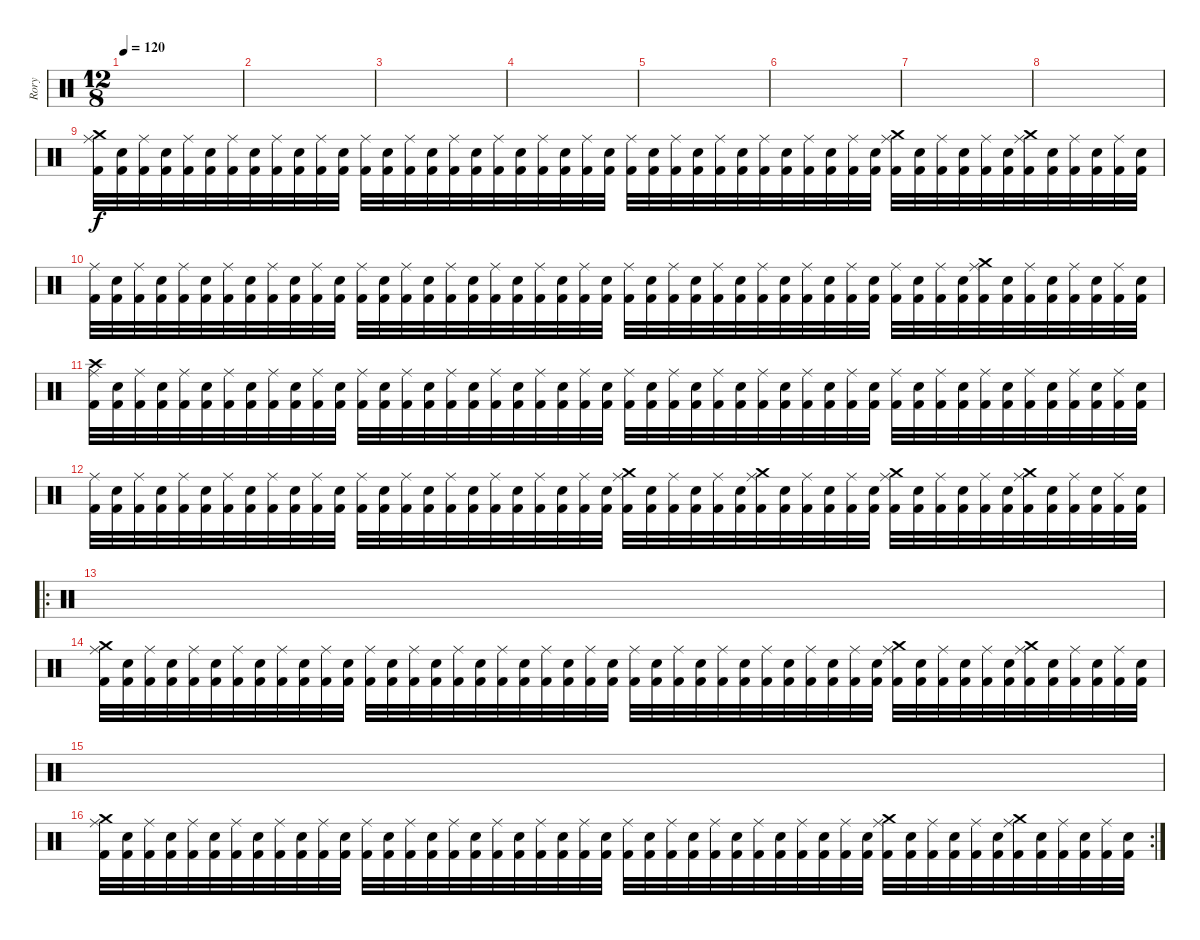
\track ("Rory" "Rory") {instrument percussion}
\staff {score}
\articulation defaults
\ts (12 8)
\tempo 120
\clef neutral
\ks c
|
|
|
|
|
|
|
|
("Kick (hit) 2" "Crash medium (hit)" "Ride (middle)").32 ("Kick (hit) 2" "Electric Snare (hit)").32 ("Kick (hit) 2" "Ride (middle)").32 ("Kick (hit) 2" "Electric Snare (hit)").32 ("Kick (hit) 2" "Ride (middle)").32 ("Kick (hit) 2" "Electric Snare (hit)").32 ("Kick (hit) 2" "Ride (middle)").32 ("Kick (hit) 2" "Electric Snare (hit)").32 ("Kick (hit) 2" "Ride (middle)").32 ("Kick (hit) 2" "Electric Snare (hit)").32 ("Kick (hit) 2" "Ride (middle)").32 ("Kick (hit) 2" "Electric Snare (hit)").32 ("Kick (hit) 2" "Ride (middle)").32 ("Kick (hit) 2" "Electric Snare (hit)").32 ("Kick (hit) 2" "Ride (middle)").32 ("Kick (hit) 2" "Electric Snare (hit)").32 ("Kick (hit) 2" "Ride (middle)").32 ("Kick (hit) 2" "Electric Snare (hit)").32 ("Kick (hit) 2" "Ride (middle)").32 ("Kick (hit) 2" "Electric Snare (hit)").32 ("Kick (hit) 2" "Ride (middle)").32 ("Kick (hit) 2" "Electric Snare (hit)").32 ("Kick (hit) 2" "Ride (middle)").32 ("Kick (hit) 2" "Electric Snare (hit)").32 ("Kick (hit) 2" "Ride (middle)").32 ("Kick (hit) 2" "Electric Snare (hit)").32 ("Kick (hit) 2" "Ride (middle)").32 ("Kick (hit) 2" "Electric Snare (hit)").32 ("Kick (hit) 2" "Ride (middle)").32 ("Kick (hit) 2" "Electric Snare (hit)").32 ("Kick (hit) 2" "Ride (middle)").32 ("Kick (hit) 2" "Electric Snare (hit)").32 ("Kick (hit) 2" "Ride (middle)").32 ("Kick (hit) 2" "Electric Snare (hit)").32 ("Kick (hit) 2" "Ride (middle)").32 ("Kick (hit) 2" "Electric Snare (hit)").32 ("Kick (hit) 2" "Crash medium (hit)" "Ride (middle)").32 ("Kick (hit) 2" "Electric Snare (hit)").32 ("Kick (hit) 2" "Ride (middle)").32 ("Kick (hit) 2" "Electric Snare (hit)").32 ("Kick (hit) 2" "Ride (middle)").32 ("Kick (hit) 2" "Electric Snare (hit)").32 ("Kick (hit) 2" "Crash medium (hit)" "Ride (middle)").32 ("Kick (hit) 2" "Electric Snare (hit)").32 ("Kick (hit) 2" "Ride (middle)").32 ("Kick (hit) 2" "Electric Snare (hit)").32 ("Kick (hit) 2" "Ride (middle)").32 ("Kick (hit) 2" "Electric Snare (hit)").32 |
("Kick (hit) 2" "Ride (middle)").32 ("Kick (hit) 2" "Electric Snare (hit)").32 ("Kick (hit) 2" "Ride (middle)").32 ("Kick (hit) 2" "Electric Snare (hit)").32 ("Kick (hit) 2" "Ride (middle)").32 ("Kick (hit) 2" "Electric Snare (hit)").32 ("Kick (hit) 2" "Ride (middle)").32 ("Kick (hit) 2" "Electric Snare (hit)").32 ("Kick (hit) 2" "Ride (middle)").32 ("Kick (hit) 2" "Electric Snare (hit)").32 ("Kick (hit) 2" "Ride (middle)").32 ("Kick (hit) 2" "Electric Snare (hit)").32 ("Kick (hit) 2" "Ride (middle)").32 ("Kick (hit) 2" "Electric Snare (hit)").32 ("Kick (hit) 2" "Ride (middle)").32 ("Kick (hit) 2" "Electric Snare (hit)").32 ("Kick (hit) 2" "Ride (middle)").32 ("Kick (hit) 2" "Electric Snare (hit)").32 ("Kick (hit) 2" "Ride (middle)").32 ("Kick (hit) 2" "Electric Snare (hit)").32 ("Kick (hit) 2" "Ride (middle)").32 ("Kick (hit) 2" "Electric Snare (hit)").32 ("Kick (hit) 2" "Ride (middle)").32 ("Kick (hit) 2" "Electric Snare (hit)").32 ("Kick (hit) 2" "Ride (middle)").32 ("Kick (hit) 2" "Electric Snare (hit)").32 ("Kick (hit) 2" "Ride (middle)").32 ("Kick (hit) 2" "Electric Snare (hit)").32 ("Kick (hit) 2" "Ride (middle)").32 ("Kick (hit) 2" "Electric Snare (hit)").32 ("Kick (hit) 2" "Ride (middle)").32 ("Kick (hit) 2" "Electric Snare (hit)").32 ("Kick (hit) 2" "Ride (middle)").32 ("Kick (hit) 2" "Electric Snare (hit)").32 ("Kick (hit) 2" "Ride (middle)").32 ("Kick (hit) 2" "Electric Snare (hit)").32 ("Kick (hit) 2" "Ride (middle)").32 ("Kick (hit) 2" "Electric Snare (hit)").32 ("Kick (hit) 2" "Ride (middle)").32 ("Kick (hit) 2" "Electric Snare (hit)").32 ("Kick (hit) 2" "Crash medium (hit)" "Ride (middle)").32 ("Kick (hit) 2" "Electric Snare (hit)").32 ("Kick (hit) 2" "Ride (middle)").32 ("Kick (hit) 2" "Electric Snare (hit)").32 ("Kick (hit) 2" "Ride (middle)").32 ("Kick (hit) 2" "Electric Snare (hit)").32 ("Kick (hit) 2" "Ride (middle)").32 ("Kick (hit) 2" "Electric Snare (hit)").32 |
("Kick (hit) 2" "Crash high (hit)" "Ride (middle)").32 ("Kick (hit) 2" "Electric Snare (hit)").32 ("Kick (hit) 2" "Ride (middle)").32 ("Kick (hit) 2" "Electric Snare (hit)").32 ("Kick (hit) 2" "Ride (middle)").32 ("Kick (hit) 2" "Electric Snare (hit)").32 ("Kick (hit) 2" "Ride (middle)").32 ("Kick (hit) 2" "Electric Snare (hit)").32 ("Kick (hit) 2" "Ride (middle)").32 ("Kick (hit) 2" "Electric Snare (hit)").32 ("Kick (hit) 2" "Ride (middle)").32 ("Kick (hit) 2" "Electric Snare (hit)").32 ("Kick (hit) 2" "Ride (middle)").32 ("Kick (hit) 2" "Electric Snare (hit)").32 ("Kick (hit) 2" "Ride (middle)").32 ("Kick (hit) 2" "Electric Snare (hit)").32 ("Kick (hit) 2" "Ride (middle)").32 ("Kick (hit) 2" "Electric Snare (hit)").32 ("Kick (hit) 2" "Ride (middle)").32 ("Kick (hit) 2" "Electric Snare (hit)").32 ("Kick (hit) 2" "Ride (middle)").32 ("Kick (hit) 2" "Electric Snare (hit)").32 ("Kick (hit) 2" "Ride (middle)").32 ("Kick (hit) 2" "Electric Snare (hit)").32 ("Kick (hit) 2" "Ride (middle)").32 ("Kick (hit) 2" "Electric Snare (hit)").32 ("Kick (hit) 2" "Ride (middle)").32 ("Kick (hit) 2" "Electric Snare (hit)").32 ("Kick (hit) 2" "Ride (middle)").32 ("Kick (hit) 2" "Electric Snare (hit)").32 ("Kick (hit) 2" "Ride (middle)").32 ("Kick (hit) 2" "Electric Snare (hit)").32 ("Kick (hit) 2" "Ride (middle)").32 ("Kick (hit) 2" "Electric Snare (hit)").32 ("Kick (hit) 2" "Ride (middle)").32 ("Kick (hit) 2" "Electric Snare (hit)").32 ("Kick (hit) 2" "Ride (middle)").32 ("Kick (hit) 2" "Electric Snare (hit)").32 ("Kick (hit) 2" "Ride (middle)").32 ("Kick (hit) 2" "Electric Snare (hit)").32 ("Kick (hit) 2" "Ride (middle)").32 ("Kick (hit) 2" "Electric Snare (hit)").32 ("Kick (hit) 2" "Ride (middle)").32 ("Kick (hit) 2" "Electric Snare (hit)").32 ("Kick (hit) 2" "Ride (middle)").32 ("Kick (hit) 2" "Electric Snare (hit)").32 ("Kick (hit) 2" "Ride (middle)").32 ("Kick (hit) 2" "Electric Snare (hit)").32 |
("Kick (hit) 2" "Ride (middle)").32 ("Kick (hit) 2" "Electric Snare (hit)").32 ("Kick (hit) 2" "Ride (middle)").32 ("Kick (hit) 2" "Electric Snare (hit)").32 ("Kick (hit) 2" "Ride (middle)").32 ("Kick (hit) 2" "Electric Snare (hit)").32 ("Kick (hit) 2" "Ride (middle)").32 ("Kick (hit) 2" "Electric Snare (hit)").32 ("Kick (hit) 2" "Ride (middle)").32 ("Kick (hit) 2" "Electric Snare (hit)").32 ("Kick (hit) 2" "Ride (middle)").32 ("Kick (hit) 2" "Electric Snare (hit)").32 ("Kick (hit) 2" "Ride (middle)").32 ("Kick (hit) 2" "Electric Snare (hit)").32 ("Kick (hit) 2" "Ride (middle)").32 ("Kick (hit) 2" "Electric Snare (hit)").32 ("Kick (hit) 2" "Ride (middle)").32 ("Kick (hit) 2" "Electric Snare (hit)").32 ("Kick (hit) 2" "Ride (middle)").32 ("Kick (hit) 2" "Electric Snare (hit)").32 ("Kick (hit) 2" "Ride (middle)").32 ("Kick (hit) 2" "Electric Snare (hit)").32 ("Kick (hit) 2" "Ride (middle)").32 ("Kick (hit) 2" "Electric Snare (hit)").32 ("Kick (hit) 2" "Crash medium (hit)" "Ride (middle)").32 ("Kick (hit) 2" "Electric Snare (hit)").32 ("Kick (hit) 2" "Ride (middle)").32 ("Kick (hit) 2" "Electric Snare (hit)").32 ("Kick (hit) 2" "Ride (middle)").32 ("Kick (hit) 2" "Electric Snare (hit)").32 ("Kick (hit) 2" "Crash medium (hit)" "Ride (middle)").32 ("Kick (hit) 2" "Electric Snare (hit)").32 ("Kick (hit) 2" "Ride (middle)").32 ("Kick (hit) 2" "Electric Snare (hit)").32 ("Kick (hit) 2" "Ride (middle)").32 ("Kick (hit) 2" "Electric Snare (hit)").32 ("Kick (hit) 2" "Crash medium (hit)" "Ride (middle)").32 ("Kick (hit) 2" "Electric Snare (hit)").32 ("Kick (hit) 2" "Ride (middle)").32 ("Kick (hit) 2" "Electric Snare (hit)").32 ("Kick (hit) 2" "Ride (middle)").32 ("Kick (hit) 2" "Electric Snare (hit)").32 ("Kick (hit) 2" "Crash medium (hit)" "Ride (middle)").32 ("Kick (hit) 2" "Electric Snare (hit)").32 ("Kick (hit) 2" "Ride (middle)").32 ("Kick (hit) 2" "Electric Snare (hit)").32 ("Kick (hit) 2" "Ride (middle)").32 ("Kick (hit) 2" "Electric Snare (hit)").32 |
\ro
|
("Kick (hit) 2" "Crash medium (hit)" "Ride (middle)").32 ("Kick (hit) 2" "Electric Snare (hit)").32 ("Kick (hit) 2" "Ride (middle)").32 ("Kick (hit) 2" "Electric Snare (hit)").32 ("Kick (hit) 2" "Ride (middle)").32 ("Kick (hit) 2" "Electric Snare (hit)").32 ("Kick (hit) 2" "Ride (middle)").32 ("Kick (hit) 2" "Electric Snare (hit)").32 ("Kick (hit) 2" "Ride (middle)").32 ("Kick (hit) 2" "Electric Snare (hit)").32 ("Kick (hit) 2" "Ride (middle)").32 ("Kick (hit) 2" "Electric Snare (hit)").32 ("Kick (hit) 2" "Ride (middle)").32 ("Kick (hit) 2" "Electric Snare (hit)").32 ("Kick (hit) 2" "Ride (middle)").32 ("Kick (hit) 2" "Electric Snare (hit)").32 ("Kick (hit) 2" "Ride (middle)").32 ("Kick (hit) 2" "Electric Snare (hit)").32 ("Kick (hit) 2" "Ride (middle)").32 ("Kick (hit) 2" "Electric Snare (hit)").32 ("Kick (hit) 2" "Ride (middle)").32 ("Kick (hit) 2" "Electric Snare (hit)").32 ("Kick (hit) 2" "Ride (middle)").32 ("Kick (hit) 2" "Electric Snare (hit)").32 ("Kick (hit) 2" "Ride (middle)").32 ("Kick (hit) 2" "Electric Snare (hit)").32 ("Kick (hit) 2" "Ride (middle)").32 ("Kick (hit) 2" "Electric Snare (hit)").32 ("Kick (hit) 2" "Ride (middle)").32 ("Kick (hit) 2" "Electric Snare (hit)").32 ("Kick (hit) 2" "Ride (middle)").32 ("Kick (hit) 2" "Electric Snare (hit)").32 ("Kick (hit) 2" "Ride (middle)").32 ("Kick (hit) 2" "Electric Snare (hit)").32 ("Kick (hit) 2" "Ride (middle)").32 ("Kick (hit) 2" "Electric Snare (hit)").32 ("Kick (hit) 2" "Crash medium (hit)" "Ride (middle)").32 ("Kick (hit) 2" "Electric Snare (hit)").32 ("Kick (hit) 2" "Ride (middle)").32 ("Kick (hit) 2" "Electric Snare (hit)").32 ("Kick (hit) 2" "Ride (middle)").32 ("Kick (hit) 2" "Electric Snare (hit)").32 ("Kick (hit) 2" "Crash medium (hit)" "Ride (middle)").32 ("Kick (hit) 2" "Electric Snare (hit)").32 ("Kick (hit) 2" "Ride (middle)").32 ("Kick (hit) 2" "Electric Snare (hit)").32 ("Kick (hit) 2" "Ride (middle)").32 ("Kick (hit) 2" "Electric Snare (hit)").32 |
|
\rc 2
("Kick (hit) 2" "Crash medium (hit)" "Ride (middle)").32 ("Kick (hit) 2" "Electric Snare (hit)").32 ("Kick (hit) 2" "Ride (middle)").32 ("Kick (hit) 2" "Electric Snare (hit)").32 ("Kick (hit) 2" "Ride (middle)").32 ("Kick (hit) 2" "Electric Snare (hit)").32 ("Kick (hit) 2" "Ride (middle)").32 ("Kick (hit) 2" "Electric Snare (hit)").32 ("Kick (hit) 2" "Ride (middle)").32 ("Kick (hit) 2" "Electric Snare (hit)").32 ("Kick (hit) 2" "Ride (middle)").32 ("Kick (hit) 2" "Electric Snare (hit)").32 ("Kick (hit) 2" "Ride (middle)").32 ("Kick (hit) 2" "Electric Snare (hit)").32 ("Kick (hit) 2" "Ride (middle)").32 ("Kick (hit) 2" "Electric Snare (hit)").32 ("Kick (hit) 2" "Ride (middle)").32 ("Kick (hit) 2" "Electric Snare (hit)").32 ("Kick (hit) 2" "Ride (middle)").32 ("Kick (hit) 2" "Electric Snare (hit)").32 ("Kick (hit) 2" "Ride (middle)").32 ("Kick (hit) 2" "Electric Snare (hit)").32 ("Kick (hit) 2" "Ride (middle)").32 ("Kick (hit) 2" "Electric Snare (hit)").32 ("Kick (hit) 2" "Ride (middle)").32 ("Kick (hit) 2" "Electric Snare (hit)").32 ("Kick (hit) 2" "Ride (middle)").32 ("Kick (hit) 2" "Electric Snare (hit)").32 ("Kick (hit) 2" "Ride (middle)").32 ("Kick (hit) 2" "Electric Snare (hit)").32 ("Kick (hit) 2" "Ride (middle)").32 ("Kick (hit) 2" "Electric Snare (hit)").32 ("Kick (hit) 2" "Ride (middle)").32 ("Kick (hit) 2" "Electric Snare (hit)").32 ("Kick (hit) 2" "Ride (middle)").32 ("Kick (hit) 2" "Electric Snare (hit)").32 ("Kick (hit) 2" "Crash medium (hit)" "Ride (middle)").32 ("Kick (hit) 2" "Electric Snare (hit)").32 ("Kick (hit) 2" "Ride (middle)").32 ("Kick (hit) 2" "Electric Snare (hit)").32 ("Kick (hit) 2" "Ride (middle)").32 ("Kick (hit) 2" "Electric Snare (hit)").32 ("Kick (hit) 2" "Crash medium (hit)" "Ride (middle)").32 ("Kick (hit) 2" "Electric Snare (hit)").32 ("Kick (hit) 2" "Ride (middle)").32 ("Kick (hit) 2" "Electric Snare (hit)").32 ("Kick (hit) 2" "Ride (middle)").32 ("Kick (hit) 2" "Electric Snare (hit)").32
